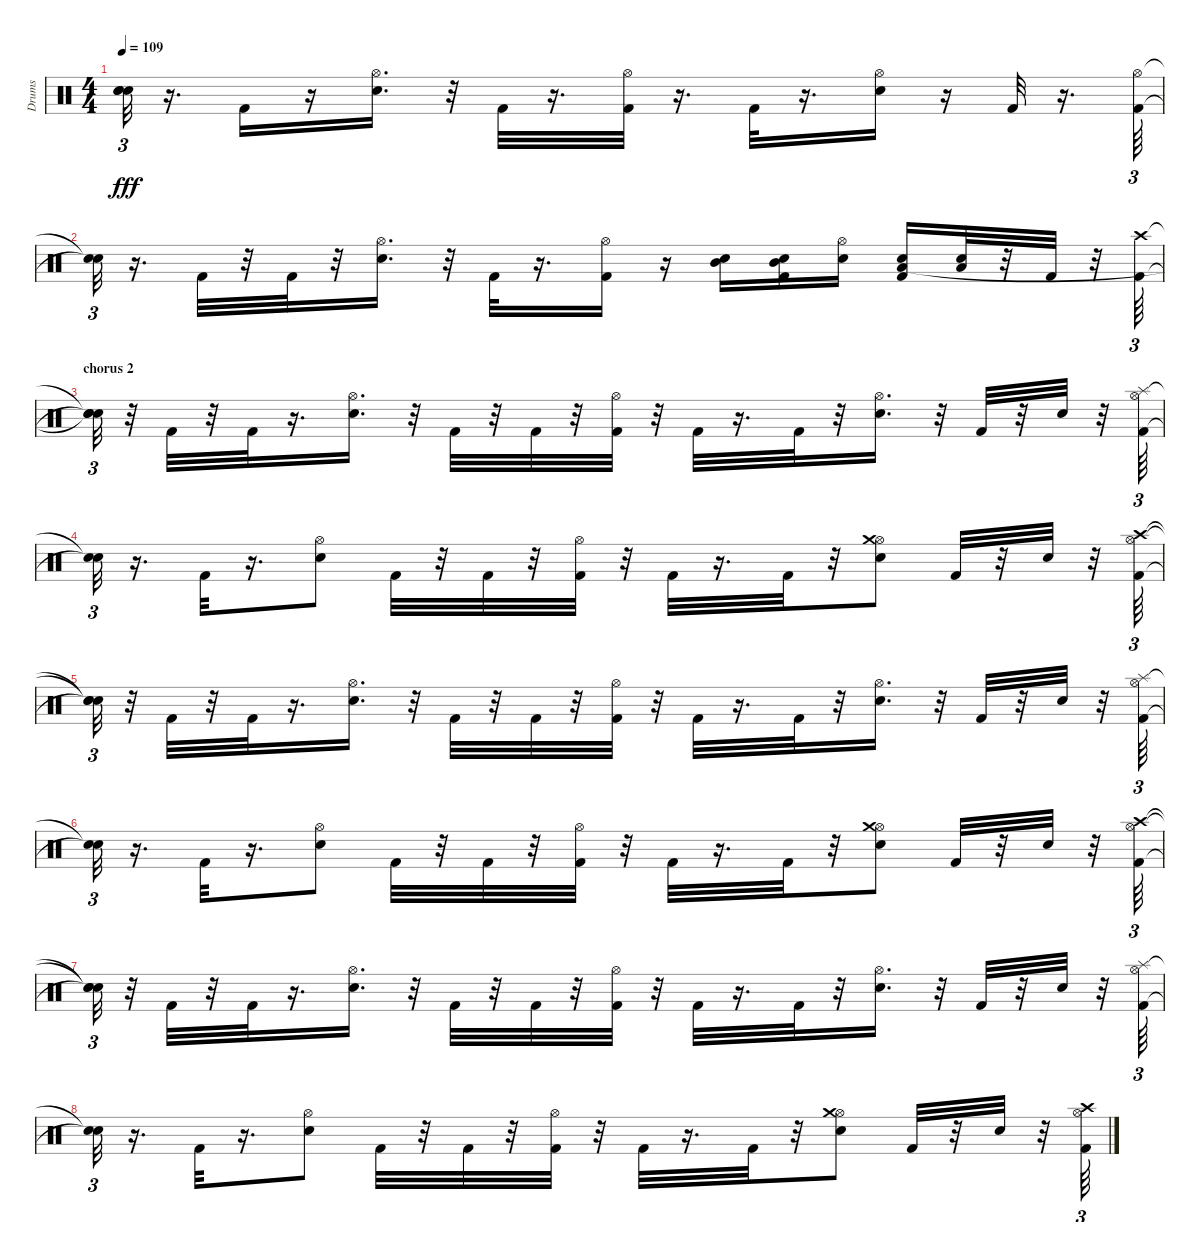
\track ("Drums" "Drums") {instrument percussion}
\staff {score}
\articulation defaults
\ts (4 4)
\tempo 109
\clef neutral
\ks c
("Snare (hit)"{t} "Snare (hit)"{t} "Snare (hit)"{t}).32{tu (3 2) dy fff} r.16{d} "Kick (hit) 2".16 r.16 ("Snare (hit) 2" "Hi-Hat (open)").16{d} r.32 "Kick (hit) 2".32 r.16{d} ("Kick (hit) 2" "Hi-Hat (open)").32 r.16{d} "Kick (hit) 2".32 r.16{d} ("Snare (hit) 2" "Hi-Hat (open)").16 r.16 "Kick (hit) 2".32 r.16{d} ("Kick (hit) 2" "Hi-Hat (open)").64{tu (3 2)} |
("Snare (hit)"{t} "Snare (hit)"{t}).32{tu (3 2)} r.16{d} "Kick (hit) 2".32 r.32 "Kick (hit) 2".32 r.32 ("Snare (hit) 2" "Hi-Hat (open)").16{d} r.32 "Kick (hit) 2".32 r.16{d} ("Kick (hit) 2" "Hi-Hat (open)").16 r.16 ("Snare (hit) 2" "Mid Tom (hit)").16 ("Kick (hit) 2" "Snare (hit) 2" "Mid Tom (hit)").16 ("Snare (hit) 2" "Hi-Hat (open)").16 ("Kick (hit) 2" "Snare (hit) 2" "Low Tom (hit)").16 ("Snare (hit) 2" "Low Floor Tom (hit)").32 r.32 "Kick (hit) 2".32 r.32 ("Kick (hit) 2" "Crash high (hit)").64{tu (3 2)} |
\section ("" "chorus 2")
("Snare (hit)"{t} "Snare (hit)"{t} "Snare (hit)"{t}).32{tu (3 2)} r.32 "Kick (hit) 2".32 r.32 "Kick (hit) 2".32 r.16{d} ("Snare (hit) 2" "Hi-Hat (open)").16{d} r.32 "Kick (hit) 2".32 r.32 "Kick (hit) 2".32 r.32 ("Kick (hit) 2" "Hi-Hat (open)").32 r.32 "Kick (hit) 2".32 r.16{d} "Kick (hit) 2".32 r.32 ("Snare (hit) 2" "Hi-Hat (open)").16{d} r.32 "Kick (hit) 2".32 r.32 "Snare (hit) 2".32 r.32 ("Kick (hit) 2" "Hi-Hat (open)" "Splash (hit)").64{tu (3 2)} |
("Snare (hit)"{t} "Snare (hit)"{t}).32{tu (3 2)} r.16{d} "Kick (hit) 2".32 r.16{d} ("Snare (hit) 2" "Hi-Hat (open)").8 "Kick (hit) 2".32 r.32 "Kick (hit) 2".32 r.32 ("Kick (hit) 2" "Hi-Hat (open)").32 r.32 "Kick (hit) 2".32 r.16{d} "Kick (hit) 2".32 r.32 ("Snare (hit) 2" "Hi-Hat (open)" "Crash medium (hit)").8 "Kick (hit) 2".32 r.32 "Snare (hit) 2".32 r.32 ("Kick (hit) 2" "Hi-Hat (open)" "Crash high (hit)").64{tu (3 2)} |
("Snare (hit)"{t} "Snare (hit)"{t} "Snare (hit)"{t}).32{tu (3 2)} r.32 "Kick (hit) 2".32 r.32 "Kick (hit) 2".32 r.16{d} ("Snare (hit) 2" "Hi-Hat (open)").16{d} r.32 "Kick (hit) 2".32 r.32 "Kick (hit) 2".32 r.32 ("Kick (hit) 2" "Hi-Hat (open)").32 r.32 "Kick (hit) 2".32 r.16{d} "Kick (hit) 2".32 r.32 ("Snare (hit) 2" "Hi-Hat (open)").16{d} r.32 "Kick (hit) 2".32 r.32 "Snare (hit) 2".32 r.32 ("Kick (hit) 2" "Hi-Hat (open)" "Splash (hit)").64{tu (3 2)} |
("Snare (hit)"{t} "Snare (hit)"{t}).32{tu (3 2)} r.16{d} "Kick (hit) 2".32 r.16{d} ("Snare (hit) 2" "Hi-Hat (open)").8 "Kick (hit) 2".32 r.32 "Kick (hit) 2".32 r.32 ("Kick (hit) 2" "Hi-Hat (open)").32 r.32 "Kick (hit) 2".32 r.16{d} "Kick (hit) 2".32 r.32 ("Snare (hit) 2" "Hi-Hat (open)" "Crash medium (hit)").8 "Kick (hit) 2".32 r.32 "Snare (hit) 2".32 r.32 ("Kick (hit) 2" "Hi-Hat (open)" "Crash high (hit)").64{tu (3 2)} |
("Snare (hit)"{t} "Snare (hit)"{t} "Snare (hit)"{t}).32{tu (3 2)} r.32 "Kick (hit) 2".32 r.32 "Kick (hit) 2".32 r.16{d} ("Snare (hit) 2" "Hi-Hat (open)").16{d} r.32 "Kick (hit) 2".32 r.32 "Kick (hit) 2".32 r.32 ("Kick (hit) 2" "Hi-Hat (open)").32 r.32 "Kick (hit) 2".32 r.16{d} "Kick (hit) 2".32 r.32 ("Snare (hit) 2" "Hi-Hat (open)").16{d} r.32 "Kick (hit) 2".32 r.32 "Snare (hit) 2".32 r.32 ("Kick (hit) 2" "Hi-Hat (open)" "Splash (hit)").64{tu (3 2)} |
("Snare (hit)"{t} "Snare (hit)"{t}).32{tu (3 2)} r.16{d} "Kick (hit) 2".32 r.16{d} ("Snare (hit) 2" "Hi-Hat (open)").8 "Kick (hit) 2".32 r.32 "Kick (hit) 2".32 r.32 ("Kick (hit) 2" "Hi-Hat (open)").32 r.32 "Kick (hit) 2".32 r.16{d} "Kick (hit) 2".32 r.32 ("Snare (hit) 2" "Hi-Hat (open)" "Crash medium (hit)").8 "Kick (hit) 2".32 r.32 "Snare (hit) 2".32 r.32 ("Kick (hit) 2" "Hi-Hat (open)" "Crash high (hit)").64{tu (3 2)}
